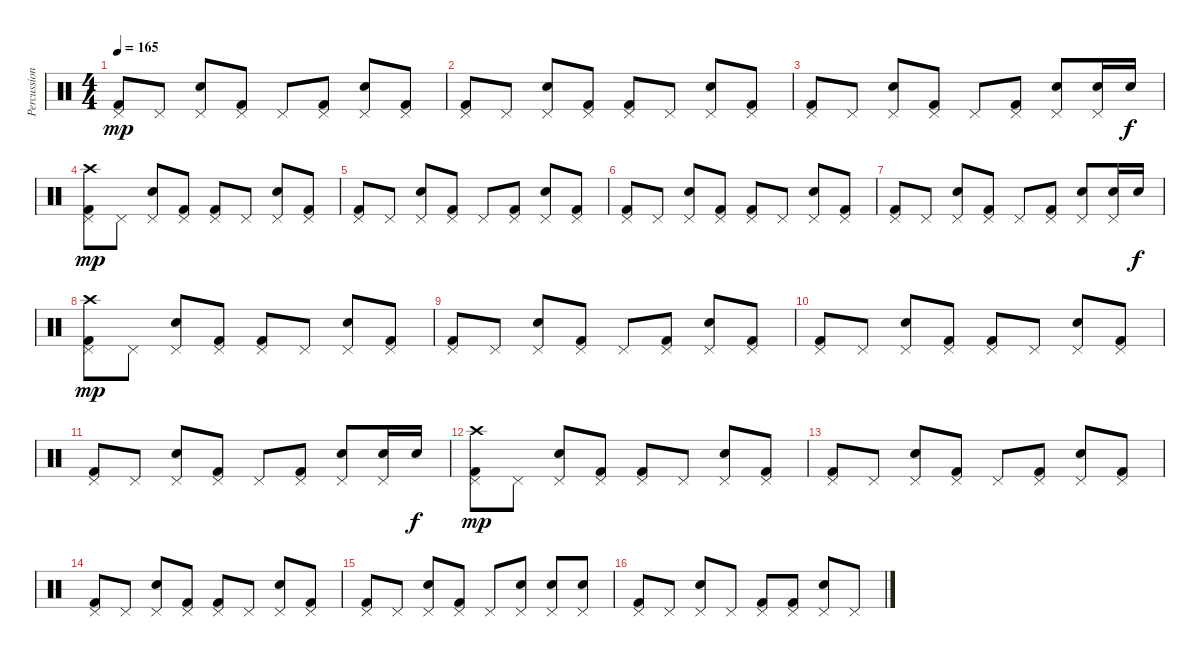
\track ("Percussion" "Percussion") {instrument percussion}
\staff {score}
\articulation defaults
\ts (4 4)
\tempo 165
\clef neutral
\ks c
("Kick (hit) 2" "Pedal Hi-Hat (hit)").8{dy mp} "Pedal Hi-Hat (hit)".8 ("Pedal Hi-Hat (hit)" "Snare (hit) 2").8 ("Pedal Hi-Hat (hit)" "Kick (hit) 2").8 "Pedal Hi-Hat (hit)".8 ("Pedal Hi-Hat (hit)" "Kick (hit) 2").8 ("Pedal Hi-Hat (hit)" "Snare (hit) 2").8 ("Pedal Hi-Hat (hit)" "Kick (hit) 2").8 |
("Pedal Hi-Hat (hit)" "Kick (hit) 2").8 "Pedal Hi-Hat (hit)".8 ("Snare (hit) 2" "Pedal Hi-Hat (hit)").8 ("Kick (hit) 2" "Pedal Hi-Hat (hit)").8 ("Kick (hit) 2" "Pedal Hi-Hat (hit)").8 "Pedal Hi-Hat (hit)".8 ("Snare (hit) 2" "Pedal Hi-Hat (hit)").8 ("Kick (hit) 2" "Pedal Hi-Hat (hit)").8 |
("Kick (hit) 2" "Pedal Hi-Hat (hit)").8 "Pedal Hi-Hat (hit)".8 ("Pedal Hi-Hat (hit)" "Snare (hit) 2").8 ("Pedal Hi-Hat (hit)" "Kick (hit) 2").8 "Pedal Hi-Hat (hit)".8 ("Pedal Hi-Hat (hit)" "Kick (hit) 2").8 ("Pedal Hi-Hat (hit)" "Snare (hit) 2").8 ("Snare (hit) 2" "Pedal Hi-Hat (hit)").16 "Snare (hit) 2".16{dy f} |
("Crash high (hit)" "Pedal Hi-Hat (hit)" "Kick (hit) 2").8{dy mp} "Pedal Hi-Hat (hit)".8 ("Snare (hit) 2" "Pedal Hi-Hat (hit)").8 ("Kick (hit) 2" "Pedal Hi-Hat (hit)").8 ("Kick (hit) 2" "Pedal Hi-Hat (hit)").8 "Pedal Hi-Hat (hit)".8 ("Snare (hit) 2" "Pedal Hi-Hat (hit)").8 ("Kick (hit) 2" "Pedal Hi-Hat (hit)").8 |
("Kick (hit) 2" "Pedal Hi-Hat (hit)").8 "Pedal Hi-Hat (hit)".8 ("Pedal Hi-Hat (hit)" "Snare (hit) 2").8 ("Pedal Hi-Hat (hit)" "Kick (hit) 2").8 "Pedal Hi-Hat (hit)".8 ("Pedal Hi-Hat (hit)" "Kick (hit) 2").8 ("Pedal Hi-Hat (hit)" "Snare (hit) 2").8 ("Pedal Hi-Hat (hit)" "Kick (hit) 2").8 |
("Pedal Hi-Hat (hit)" "Kick (hit) 2").8 "Pedal Hi-Hat (hit)".8 ("Snare (hit) 2" "Pedal Hi-Hat (hit)").8 ("Kick (hit) 2" "Pedal Hi-Hat (hit)").8 ("Kick (hit) 2" "Pedal Hi-Hat (hit)").8 "Pedal Hi-Hat (hit)".8 ("Snare (hit) 2" "Pedal Hi-Hat (hit)").8 ("Kick (hit) 2" "Pedal Hi-Hat (hit)").8 |
("Kick (hit) 2" "Pedal Hi-Hat (hit)").8 "Pedal Hi-Hat (hit)".8 ("Pedal Hi-Hat (hit)" "Snare (hit) 2").8 ("Pedal Hi-Hat (hit)" "Kick (hit) 2").8 "Pedal Hi-Hat (hit)".8 ("Pedal Hi-Hat (hit)" "Kick (hit) 2").8 ("Pedal Hi-Hat (hit)" "Snare (hit) 2").8 ("Snare (hit) 2" "Pedal Hi-Hat (hit)").16 "Snare (hit) 2".16{dy f} |
("Crash high (hit)" "Pedal Hi-Hat (hit)" "Kick (hit) 2").8{dy mp} "Pedal Hi-Hat (hit)".8 ("Snare (hit) 2" "Pedal Hi-Hat (hit)").8 ("Kick (hit) 2" "Pedal Hi-Hat (hit)").8 ("Kick (hit) 2" "Pedal Hi-Hat (hit)").8 "Pedal Hi-Hat (hit)".8 ("Snare (hit) 2" "Pedal Hi-Hat (hit)").8 ("Kick (hit) 2" "Pedal Hi-Hat (hit)").8 |
("Kick (hit) 2" "Pedal Hi-Hat (hit)").8 "Pedal Hi-Hat (hit)".8 ("Pedal Hi-Hat (hit)" "Snare (hit) 2").8 ("Pedal Hi-Hat (hit)" "Kick (hit) 2").8 "Pedal Hi-Hat (hit)".8 ("Pedal Hi-Hat (hit)" "Kick (hit) 2").8 ("Pedal Hi-Hat (hit)" "Snare (hit) 2").8 ("Pedal Hi-Hat (hit)" "Kick (hit) 2").8 |
("Pedal Hi-Hat (hit)" "Kick (hit) 2").8 "Pedal Hi-Hat (hit)".8 ("Snare (hit) 2" "Pedal Hi-Hat (hit)").8 ("Kick (hit) 2" "Pedal Hi-Hat (hit)").8 ("Kick (hit) 2" "Pedal Hi-Hat (hit)").8 "Pedal Hi-Hat (hit)".8 ("Snare (hit) 2" "Pedal Hi-Hat (hit)").8 ("Kick (hit) 2" "Pedal Hi-Hat (hit)").8 |
("Kick (hit) 2" "Pedal Hi-Hat (hit)").8 "Pedal Hi-Hat (hit)".8 ("Pedal Hi-Hat (hit)" "Snare (hit) 2").8 ("Pedal Hi-Hat (hit)" "Kick (hit) 2").8 "Pedal Hi-Hat (hit)".8 ("Pedal Hi-Hat (hit)" "Kick (hit) 2").8 ("Pedal Hi-Hat (hit)" "Snare (hit) 2").8 ("Snare (hit) 2" "Pedal Hi-Hat (hit)").16 "Snare (hit) 2".16{dy f} |
("Crash high (hit)" "Pedal Hi-Hat (hit)" "Kick (hit) 2").8{dy mp} "Pedal Hi-Hat (hit)".8 ("Snare (hit) 2" "Pedal Hi-Hat (hit)").8 ("Kick (hit) 2" "Pedal Hi-Hat (hit)").8 ("Kick (hit) 2" "Pedal Hi-Hat (hit)").8 "Pedal Hi-Hat (hit)".8 ("Snare (hit) 2" "Pedal Hi-Hat (hit)").8 ("Kick (hit) 2" "Pedal Hi-Hat (hit)").8 |
("Kick (hit) 2" "Pedal Hi-Hat (hit)").8 "Pedal Hi-Hat (hit)".8 ("Pedal Hi-Hat (hit)" "Snare (hit) 2").8 ("Pedal Hi-Hat (hit)" "Kick (hit) 2").8 "Pedal Hi-Hat (hit)".8 ("Pedal Hi-Hat (hit)" "Kick (hit) 2").8 ("Pedal Hi-Hat (hit)" "Snare (hit) 2").8 ("Pedal Hi-Hat (hit)" "Kick (hit) 2").8 |
("Pedal Hi-Hat (hit)" "Kick (hit) 2").8 "Pedal Hi-Hat (hit)".8 ("Snare (hit) 2" "Pedal Hi-Hat (hit)").8 ("Kick (hit) 2" "Pedal Hi-Hat (hit)").8 ("Kick (hit) 2" "Pedal Hi-Hat (hit)").8 "Pedal Hi-Hat (hit)".8 ("Snare (hit) 2" "Pedal Hi-Hat (hit)").8 ("Kick (hit) 2" "Pedal Hi-Hat (hit)").8 |
("Kick (hit) 2" "Pedal Hi-Hat (hit)").8 "Pedal Hi-Hat (hit)".8 ("Pedal Hi-Hat (hit)" "Snare (hit) 2").8 ("Pedal Hi-Hat (hit)" "Kick (hit) 2").8 "Pedal Hi-Hat (hit)".8 ("Snare (hit) 2" "Pedal Hi-Hat (hit)").8 ("Pedal Hi-Hat (hit)" "Snare (hit) 2").8 ("Snare (hit) 2" "Pedal Hi-Hat (hit)").8 |
("Pedal Hi-Hat (hit)" "Kick (hit) 2").8 "Pedal Hi-Hat (hit)".8 ("Pedal Hi-Hat (hit)" "Snare (hit) 2").8 "Pedal Hi-Hat (hit)".8 ("Pedal Hi-Hat (hit)" "Kick (hit) 2").8 ("Pedal Hi-Hat (hit)" "Kick (hit) 2").8 ("Pedal Hi-Hat (hit)" "Snare (hit) 2").8 "Pedal Hi-Hat (hit)".8
